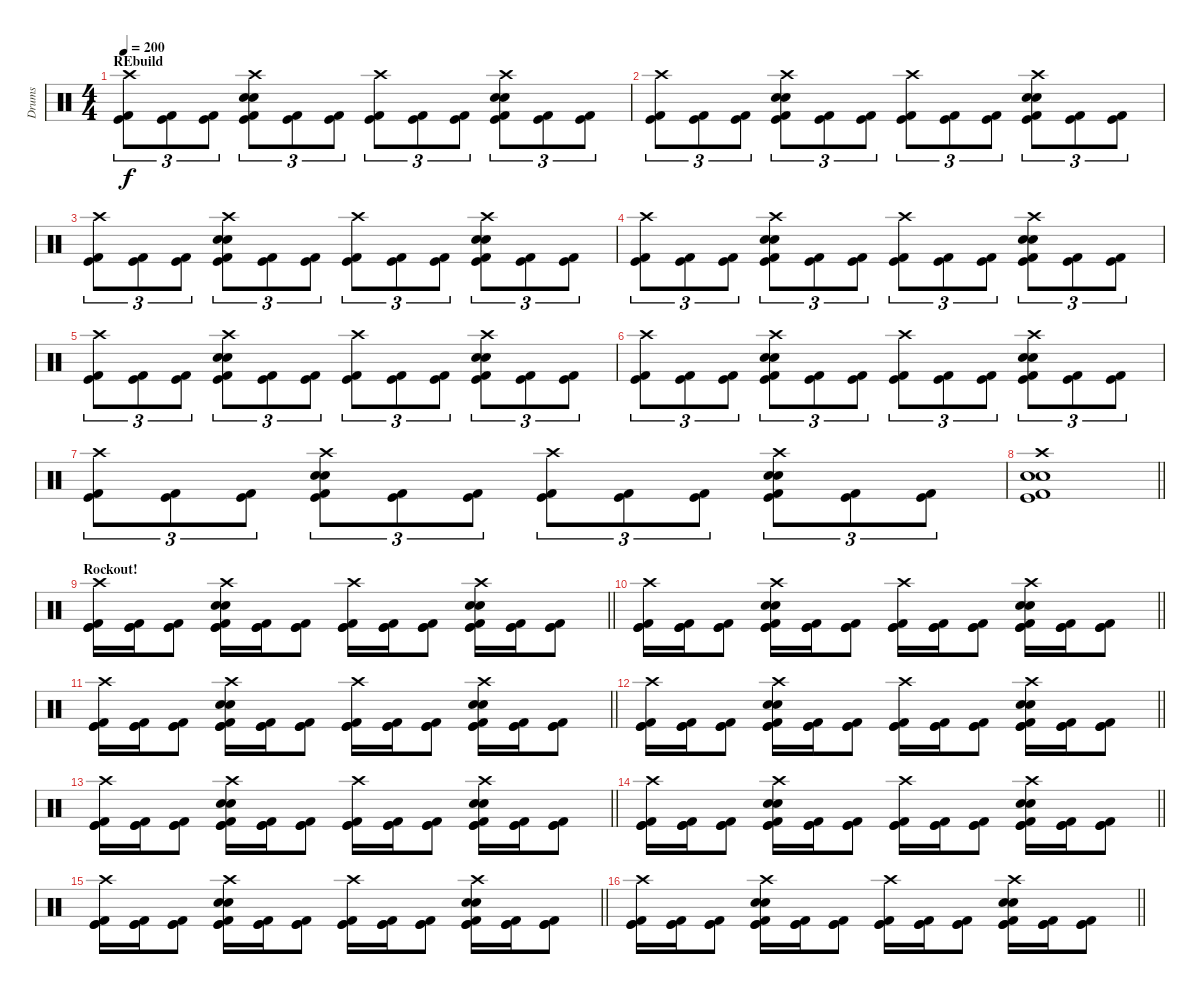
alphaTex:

\track ("Drums" "Drums") {instrument percussion}
\staff {score}
\articulation defaults
\ts (4 4)
\section ("" "REbuild")
\tempo 200
\clef neutral
\ks c
("Crash high (hit)" "Kick (hit) 2" "Kick (hit)").8{tu (3 2) dy f} ("Kick (hit) 2" "Kick (hit)").8{tu (3 2)} ("Kick (hit) 2" "Kick (hit)").8{tu (3 2)} ("Crash high (hit)" "Electric Snare (hit)" "Electric Snare (hit)" "Kick (hit) 2" "Kick (hit)").8{tu (3 2)} ("Kick (hit) 2" "Kick (hit)").8{tu (3 2)} ("Kick (hit) 2" "Kick (hit)").8{tu (3 2)} ("Crash high (hit)" "Kick (hit) 2" "Kick (hit)").8{tu (3 2)} ("Kick (hit) 2" "Kick (hit)").8{tu (3 2)} ("Kick (hit) 2" "Kick (hit)").8{tu (3 2)} ("Crash high (hit)" "Electric Snare (hit)" "Electric Snare (hit)" "Kick (hit) 2" "Kick (hit)").8{tu (3 2)} ("Kick (hit) 2" "Kick (hit)").8{tu (3 2)} ("Kick (hit) 2" "Kick (hit)").8{tu (3 2)} |
("Crash high (hit)" "Kick (hit) 2" "Kick (hit)").8{tu (3 2)} ("Kick (hit) 2" "Kick (hit)").8{tu (3 2)} ("Kick (hit) 2" "Kick (hit)").8{tu (3 2)} ("Crash high (hit)" "Electric Snare (hit)" "Electric Snare (hit)" "Kick (hit) 2" "Kick (hit)").8{tu (3 2)} ("Kick (hit) 2" "Kick (hit)").8{tu (3 2)} ("Kick (hit) 2" "Kick (hit)").8{tu (3 2)} ("Crash high (hit)" "Kick (hit) 2" "Kick (hit)").8{tu (3 2)} ("Kick (hit) 2" "Kick (hit)").8{tu (3 2)} ("Kick (hit) 2" "Kick (hit)").8{tu (3 2)} ("Crash high (hit)" "Electric Snare (hit)" "Electric Snare (hit)" "Kick (hit) 2" "Kick (hit)").8{tu (3 2)} ("Kick (hit) 2" "Kick (hit)").8{tu (3 2)} ("Kick (hit) 2" "Kick (hit)").8{tu (3 2)} |
("Crash high (hit)" "Kick (hit) 2" "Kick (hit)").8{tu (3 2)} ("Kick (hit) 2" "Kick (hit)").8{tu (3 2)} ("Kick (hit) 2" "Kick (hit)").8{tu (3 2)} ("Crash high (hit)" "Electric Snare (hit)" "Electric Snare (hit)" "Kick (hit) 2" "Kick (hit)").8{tu (3 2)} ("Kick (hit) 2" "Kick (hit)").8{tu (3 2)} ("Kick (hit) 2" "Kick (hit)").8{tu (3 2)} ("Crash high (hit)" "Kick (hit) 2" "Kick (hit)").8{tu (3 2)} ("Kick (hit) 2" "Kick (hit)").8{tu (3 2)} ("Kick (hit) 2" "Kick (hit)").8{tu (3 2)} ("Crash high (hit)" "Electric Snare (hit)" "Electric Snare (hit)" "Kick (hit) 2" "Kick (hit)").8{tu (3 2)} ("Kick (hit) 2" "Kick (hit)").8{tu (3 2)} ("Kick (hit) 2" "Kick (hit)").8{tu (3 2)} |
("Crash high (hit)" "Kick (hit) 2" "Kick (hit)").8{tu (3 2)} ("Kick (hit) 2" "Kick (hit)").8{tu (3 2)} ("Kick (hit) 2" "Kick (hit)").8{tu (3 2)} ("Crash high (hit)" "Electric Snare (hit)" "Electric Snare (hit)" "Kick (hit) 2" "Kick (hit)").8{tu (3 2)} ("Kick (hit) 2" "Kick (hit)").8{tu (3 2)} ("Kick (hit) 2" "Kick (hit)").8{tu (3 2)} ("Crash high (hit)" "Kick (hit) 2" "Kick (hit)").8{tu (3 2)} ("Kick (hit) 2" "Kick (hit)").8{tu (3 2)} ("Kick (hit) 2" "Kick (hit)").8{tu (3 2)} ("Crash high (hit)" "Electric Snare (hit)" "Electric Snare (hit)" "Kick (hit) 2" "Kick (hit)").8{tu (3 2)} ("Kick (hit) 2" "Kick (hit)").8{tu (3 2)} ("Kick (hit) 2" "Kick (hit)").8{tu (3 2)} |
("Crash high (hit)" "Kick (hit) 2" "Kick (hit)").8{tu (3 2)} ("Kick (hit) 2" "Kick (hit)").8{tu (3 2)} ("Kick (hit) 2" "Kick (hit)").8{tu (3 2)} ("Crash high (hit)" "Electric Snare (hit)" "Electric Snare (hit)" "Kick (hit) 2" "Kick (hit)").8{tu (3 2)} ("Kick (hit) 2" "Kick (hit)").8{tu (3 2)} ("Kick (hit) 2" "Kick (hit)").8{tu (3 2)} ("Crash high (hit)" "Kick (hit) 2" "Kick (hit)").8{tu (3 2)} ("Kick (hit) 2" "Kick (hit)").8{tu (3 2)} ("Kick (hit) 2" "Kick (hit)").8{tu (3 2)} ("Crash high (hit)" "Electric Snare (hit)" "Electric Snare (hit)" "Kick (hit) 2" "Kick (hit)").8{tu (3 2)} ("Kick (hit) 2" "Kick (hit)").8{tu (3 2)} ("Kick (hit) 2" "Kick (hit)").8{tu (3 2)} |
("Crash high (hit)" "Kick (hit) 2" "Kick (hit)").8{tu (3 2)} ("Kick (hit) 2" "Kick (hit)").8{tu (3 2)} ("Kick (hit) 2" "Kick (hit)").8{tu (3 2)} ("Crash high (hit)" "Electric Snare (hit)" "Electric Snare (hit)" "Kick (hit) 2" "Kick (hit)").8{tu (3 2)} ("Kick (hit) 2" "Kick (hit)").8{tu (3 2)} ("Kick (hit) 2" "Kick (hit)").8{tu (3 2)} ("Crash high (hit)" "Kick (hit) 2" "Kick (hit)").8{tu (3 2)} ("Kick (hit) 2" "Kick (hit)").8{tu (3 2)} ("Kick (hit) 2" "Kick (hit)").8{tu (3 2)} ("Crash high (hit)" "Electric Snare (hit)" "Electric Snare (hit)" "Kick (hit) 2" "Kick (hit)").8{tu (3 2)} ("Kick (hit) 2" "Kick (hit)").8{tu (3 2)} ("Kick (hit) 2" "Kick (hit)").8{tu (3 2)} |
("Crash high (hit)" "Kick (hit) 2" "Kick (hit)").8{tu (3 2)} ("Kick (hit) 2" "Kick (hit)").8{tu (3 2)} ("Kick (hit) 2" "Kick (hit)").8{tu (3 2)} ("Crash high (hit)" "Electric Snare (hit)" "Electric Snare (hit)" "Kick (hit) 2" "Kick (hit)").8{tu (3 2)} ("Kick (hit) 2" "Kick (hit)").8{tu (3 2)} ("Kick (hit) 2" "Kick (hit)").8{tu (3 2)} ("Crash high (hit)" "Kick (hit) 2" "Kick (hit)").8{tu (3 2)} ("Kick (hit) 2" "Kick (hit)").8{tu (3 2)} ("Kick (hit) 2" "Kick (hit)").8{tu (3 2)} ("Crash high (hit)" "Electric Snare (hit)" "Electric Snare (hit)" "Kick (hit) 2" "Kick (hit)").8{tu (3 2)} ("Kick (hit) 2" "Kick (hit)").8{tu (3 2)} ("Kick (hit) 2" "Kick (hit)").8{tu (3 2)} |
\barLineRight lightlight
("Electric Snare (hit)" "Crash high (hit)" "Kick (hit)" "Kick (hit) 2" "Electric Snare (hit)").1 |
\section ("" "Rockout!")
\barLineRight lightlight
("Crash high (hit)" "Kick (hit) 2" "Kick (hit)" "Kick (hit)").16 ("Kick (hit) 2" "Kick (hit)" "Kick (hit)").16 ("Kick (hit) 2" "Kick (hit)" "Kick (hit)").8 ("Crash high (hit)" "Electric Snare (hit)" "Electric Snare (hit)" "Kick (hit) 2" "Kick (hit)" "Kick (hit)").16 ("Kick (hit) 2" "Kick (hit)" "Kick (hit)").16 ("Kick (hit) 2" "Kick (hit)" "Kick (hit)").8 ("Crash high (hit)" "Kick (hit) 2" "Kick (hit)" "Kick (hit)").16 ("Kick (hit) 2" "Kick (hit)" "Kick (hit)").16 ("Kick (hit) 2" "Kick (hit)" "Kick (hit)").8 ("Crash high (hit)" "Electric Snare (hit)" "Electric Snare (hit)" "Kick (hit) 2" "Kick (hit)" "Kick (hit)").16 ("Kick (hit) 2" "Kick (hit)" "Kick (hit)").16 ("Kick (hit) 2" "Kick (hit)" "Kick (hit)").8 |
\barLineRight lightlight
("Crash high (hit)" "Kick (hit) 2" "Kick (hit)" "Kick (hit)").16 ("Kick (hit) 2" "Kick (hit)" "Kick (hit)").16 ("Kick (hit) 2" "Kick (hit)" "Kick (hit)").8 ("Crash high (hit)" "Electric Snare (hit)" "Electric Snare (hit)" "Kick (hit) 2" "Kick (hit)" "Kick (hit)").16 ("Kick (hit) 2" "Kick (hit)" "Kick (hit)").16 ("Kick (hit) 2" "Kick (hit)" "Kick (hit)").8 ("Crash high (hit)" "Kick (hit) 2" "Kick (hit)" "Kick (hit)").16 ("Kick (hit) 2" "Kick (hit)" "Kick (hit)").16 ("Kick (hit) 2" "Kick (hit)" "Kick (hit)").8 ("Crash high (hit)" "Electric Snare (hit)" "Electric Snare (hit)" "Kick (hit) 2" "Kick (hit)" "Kick (hit)").16 ("Kick (hit) 2" "Kick (hit)" "Kick (hit)").16 ("Kick (hit) 2" "Kick (hit)" "Kick (hit)").8 |
\barLineRight lightlight
("Crash high (hit)" "Kick (hit) 2" "Kick (hit)" "Kick (hit)").16 ("Kick (hit) 2" "Kick (hit)" "Kick (hit)").16 ("Kick (hit) 2" "Kick (hit)" "Kick (hit)").8 ("Crash high (hit)" "Electric Snare (hit)" "Electric Snare (hit)" "Kick (hit) 2" "Kick (hit)" "Kick (hit)").16 ("Kick (hit) 2" "Kick (hit)" "Kick (hit)").16 ("Kick (hit) 2" "Kick (hit)" "Kick (hit)").8 ("Crash high (hit)" "Kick (hit) 2" "Kick (hit)" "Kick (hit)").16 ("Kick (hit) 2" "Kick (hit)" "Kick (hit)").16 ("Kick (hit) 2" "Kick (hit)" "Kick (hit)").8 ("Crash high (hit)" "Electric Snare (hit)" "Electric Snare (hit)" "Kick (hit) 2" "Kick (hit)" "Kick (hit)").16 ("Kick (hit) 2" "Kick (hit)" "Kick (hit)").16 ("Kick (hit) 2" "Kick (hit)" "Kick (hit)").8 |
\barLineRight lightlight
("Crash high (hit)" "Kick (hit) 2" "Kick (hit)" "Kick (hit)").16 ("Kick (hit) 2" "Kick (hit)" "Kick (hit)").16 ("Kick (hit) 2" "Kick (hit)" "Kick (hit)").8 ("Crash high (hit)" "Electric Snare (hit)" "Electric Snare (hit)" "Kick (hit) 2" "Kick (hit)" "Kick (hit)").16 ("Kick (hit) 2" "Kick (hit)" "Kick (hit)").16 ("Kick (hit) 2" "Kick (hit)" "Kick (hit)").8 ("Crash high (hit)" "Kick (hit) 2" "Kick (hit)" "Kick (hit)").16 ("Kick (hit) 2" "Kick (hit)" "Kick (hit)").16 ("Kick (hit) 2" "Kick (hit)" "Kick (hit)").8 ("Crash high (hit)" "Electric Snare (hit)" "Electric Snare (hit)" "Kick (hit) 2" "Kick (hit)" "Kick (hit)").16 ("Kick (hit) 2" "Kick (hit)" "Kick (hit)").16 ("Kick (hit) 2" "Kick (hit)" "Kick (hit)").8 |
\barLineRight lightlight
("Crash high (hit)" "Kick (hit) 2" "Kick (hit)" "Kick (hit)").16 ("Kick (hit) 2" "Kick (hit)" "Kick (hit)").16 ("Kick (hit) 2" "Kick (hit)" "Kick (hit)").8 ("Crash high (hit)" "Electric Snare (hit)" "Electric Snare (hit)" "Kick (hit) 2" "Kick (hit)" "Kick (hit)").16 ("Kick (hit) 2" "Kick (hit)" "Kick (hit)").16 ("Kick (hit) 2" "Kick (hit)" "Kick (hit)").8 ("Crash high (hit)" "Kick (hit) 2" "Kick (hit)" "Kick (hit)").16 ("Kick (hit) 2" "Kick (hit)" "Kick (hit)").16 ("Kick (hit) 2" "Kick (hit)" "Kick (hit)").8 ("Crash high (hit)" "Electric Snare (hit)" "Electric Snare (hit)" "Kick (hit) 2" "Kick (hit)" "Kick (hit)").16 ("Kick (hit) 2" "Kick (hit)" "Kick (hit)").16 ("Kick (hit) 2" "Kick (hit)" "Kick (hit)").8 |
\barLineRight lightlight
("Crash high (hit)" "Kick (hit) 2" "Kick (hit)" "Kick (hit)").16 ("Kick (hit) 2" "Kick (hit)" "Kick (hit)").16 ("Kick (hit) 2" "Kick (hit)" "Kick (hit)").8 ("Crash high (hit)" "Electric Snare (hit)" "Electric Snare (hit)" "Kick (hit) 2" "Kick (hit)" "Kick (hit)").16 ("Kick (hit) 2" "Kick (hit)" "Kick (hit)").16 ("Kick (hit) 2" "Kick (hit)" "Kick (hit)").8 ("Crash high (hit)" "Kick (hit) 2" "Kick (hit)" "Kick (hit)").16 ("Kick (hit) 2" "Kick (hit)" "Kick (hit)").16 ("Kick (hit) 2" "Kick (hit)" "Kick (hit)").8 ("Crash high (hit)" "Electric Snare (hit)" "Electric Snare (hit)" "Kick (hit) 2" "Kick (hit)" "Kick (hit)").16 ("Kick (hit) 2" "Kick (hit)" "Kick (hit)").16 ("Kick (hit) 2" "Kick (hit)" "Kick (hit)").8 |
\barLineRight lightlight
("Crash high (hit)" "Kick (hit) 2" "Kick (hit)" "Kick (hit)").16 ("Kick (hit) 2" "Kick (hit)" "Kick (hit)").16 ("Kick (hit) 2" "Kick (hit)" "Kick (hit)").8 ("Crash high (hit)" "Electric Snare (hit)" "Electric Snare (hit)" "Kick (hit) 2" "Kick (hit)" "Kick (hit)").16 ("Kick (hit) 2" "Kick (hit)" "Kick (hit)").16 ("Kick (hit) 2" "Kick (hit)" "Kick (hit)").8 ("Crash high (hit)" "Kick (hit) 2" "Kick (hit)" "Kick (hit)").16 ("Kick (hit) 2" "Kick (hit)" "Kick (hit)").16 ("Kick (hit) 2" "Kick (hit)" "Kick (hit)").8 ("Crash high (hit)" "Electric Snare (hit)" "Electric Snare (hit)" "Kick (hit) 2" "Kick (hit)" "Kick (hit)").16 ("Kick (hit) 2" "Kick (hit)" "Kick (hit)").16 ("Kick (hit) 2" "Kick (hit)" "Kick (hit)").8 |
\barLineRight lightlight
("Crash high (hit)" "Kick (hit) 2" "Kick (hit)" "Kick (hit)").16 ("Kick (hit) 2" "Kick (hit)" "Kick (hit)").16 ("Kick (hit) 2" "Kick (hit)" "Kick (hit)").8 ("Crash high (hit)" "Electric Snare (hit)" "Electric Snare (hit)" "Kick (hit) 2" "Kick (hit)" "Kick (hit)").16 ("Kick (hit) 2" "Kick (hit)" "Kick (hit)").16 ("Kick (hit) 2" "Kick (hit)" "Kick (hit)").8 ("Crash high (hit)" "Kick (hit) 2" "Kick (hit)" "Kick (hit)").16 ("Kick (hit) 2" "Kick (hit)" "Kick (hit)").16 ("Kick (hit) 2" "Kick (hit)" "Kick (hit)").8 ("Crash high (hit)" "Electric Snare (hit)" "Electric Snare (hit)" "Kick (hit) 2" "Kick (hit)" "Kick (hit)").16 ("Kick (hit) 2" "Kick (hit)" "Kick (hit)").16 ("Kick (hit) 2" "Kick (hit)" "Kick (hit)").8
